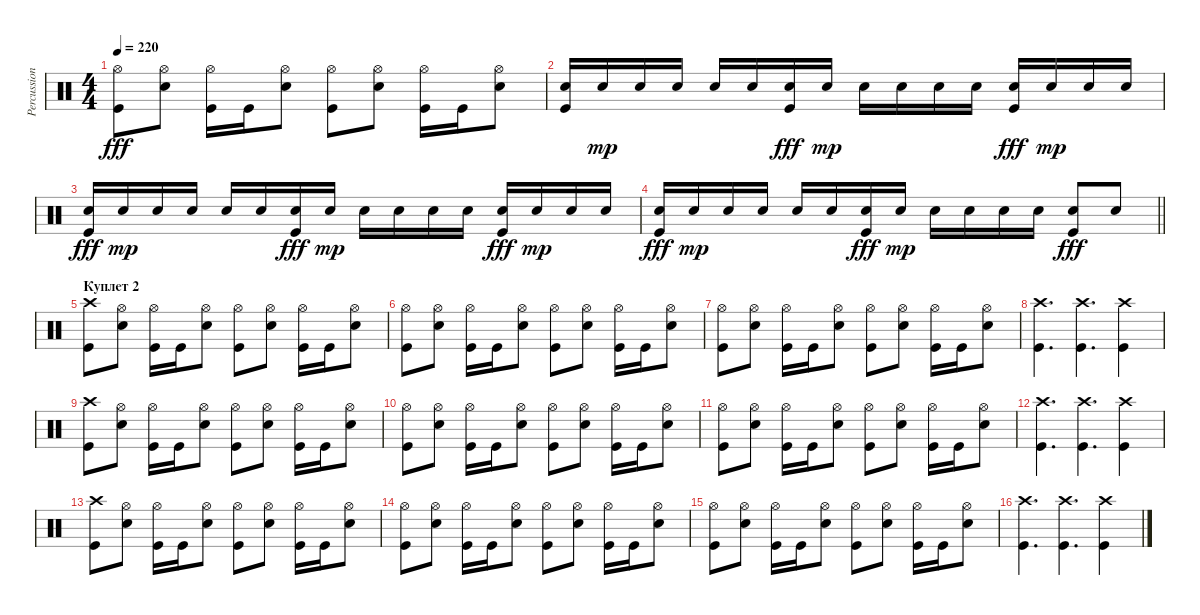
\track ("Percussion" "Percussion") {instrument percussion}
\staff {score}
\articulation defaults
\ts (4 4)
\tempo 220
\clef neutral
\ks c
("Hi-Hat (open)" "Kick (hit)").8{dy fff} ("Hi-Hat (open)" "Snare (hit) 2").8 ("Hi-Hat (open)" "Kick (hit)").16 "Kick (hit)".16 ("Hi-Hat (open)" "Snare (hit) 2").8 ("Hi-Hat (open)" "Kick (hit)").8 ("Hi-Hat (open)" "Snare (hit) 2").8 ("Hi-Hat (open)" "Kick (hit)").16 "Kick (hit)".16 ("Hi-Hat (open)" "Snare (hit) 2").8 |
("Snare (hit) 2" "Kick (hit)").16 "Snare (hit) 2".16{dy mp} "Snare (hit) 2".16 "Snare (hit) 2".16 "Snare (hit) 2".16 "Snare (hit) 2".16 ("Snare (hit) 2" "Kick (hit)").16{dy fff} "Snare (hit) 2".16{dy mp} "Snare (hit) 2".16 "Snare (hit) 2".16 "Snare (hit) 2".16 "Snare (hit) 2".16 ("Snare (hit) 2" "Kick (hit)").16{dy fff} "Snare (hit) 2".16{dy mp} "Snare (hit) 2".16 "Snare (hit) 2".16 |
("Snare (hit) 2" "Kick (hit)").16{dy fff} "Snare (hit) 2".16{dy mp} "Snare (hit) 2".16 "Snare (hit) 2".16 "Snare (hit) 2".16 "Snare (hit) 2".16 ("Snare (hit) 2" "Kick (hit)").16{dy fff} "Snare (hit) 2".16{dy mp} "Snare (hit) 2".16 "Snare (hit) 2".16 "Snare (hit) 2".16 "Snare (hit) 2".16 ("Snare (hit) 2" "Kick (hit)").16{dy fff} "Snare (hit) 2".16{dy mp} "Snare (hit) 2".16 "Snare (hit) 2".16 |
\barLineRight lightlight
("Snare (hit) 2" "Kick (hit)").16{dy fff} "Snare (hit) 2".16{dy mp} "Snare (hit) 2".16 "Snare (hit) 2".16 "Snare (hit) 2".16 "Snare (hit) 2".16 ("Snare (hit) 2" "Kick (hit)").16{dy fff} "Snare (hit) 2".16{dy mp} "Snare (hit) 2".16 "Snare (hit) 2".16 "Snare (hit) 2".16 "Snare (hit) 2".16 ("Snare (hit) 2" "Kick (hit)").8{dy fff} "Snare (hit) 2".8 |
\section ("" "Куплет 2")
("Crash high (hit)" "Kick (hit)").8 ("Hi-Hat (open)" "Snare (hit) 2").8 ("Hi-Hat (open)" "Kick (hit)").16 "Kick (hit)".16 ("Hi-Hat (open)" "Snare (hit) 2").8 ("Hi-Hat (open)" "Kick (hit)").8 ("Hi-Hat (open)" "Snare (hit) 2").8 ("Hi-Hat (open)" "Kick (hit)").16 "Kick (hit)".16 ("Hi-Hat (open)" "Snare (hit) 2").8 |
("Hi-Hat (open)" "Kick (hit)").8 ("Hi-Hat (open)" "Snare (hit) 2").8 ("Hi-Hat (open)" "Kick (hit)").16 "Kick (hit)".16 ("Hi-Hat (open)" "Snare (hit) 2").8 ("Hi-Hat (open)" "Kick (hit)").8 ("Hi-Hat (open)" "Snare (hit) 2").8 ("Hi-Hat (open)" "Kick (hit)").16 "Kick (hit)".16 ("Hi-Hat (open)" "Snare (hit) 2").8 |
("Hi-Hat (open)" "Kick (hit)").8 ("Hi-Hat (open)" "Snare (hit) 2").8 ("Hi-Hat (open)" "Kick (hit)").16 "Kick (hit)".16 ("Hi-Hat (open)" "Snare (hit) 2").8 ("Hi-Hat (open)" "Kick (hit)").8 ("Hi-Hat (open)" "Snare (hit) 2").8 ("Hi-Hat (open)" "Kick (hit)").16 "Kick (hit)".16 ("Hi-Hat (open)" "Snare (hit) 2").8 |
("Crash high (hit)" "Kick (hit)").4{d} ("Crash high (hit)" "Kick (hit)").4{d} ("Crash high (hit)" "Kick (hit)").4 |
("Crash high (hit)" "Kick (hit)").8 ("Hi-Hat (open)" "Snare (hit) 2").8 ("Hi-Hat (open)" "Kick (hit)").16 "Kick (hit)".16 ("Hi-Hat (open)" "Snare (hit) 2").8 ("Hi-Hat (open)" "Kick (hit)").8 ("Hi-Hat (open)" "Snare (hit) 2").8 ("Hi-Hat (open)" "Kick (hit)").16 "Kick (hit)".16 ("Hi-Hat (open)" "Snare (hit) 2").8 |
("Hi-Hat (open)" "Kick (hit)").8 ("Hi-Hat (open)" "Snare (hit) 2").8 ("Hi-Hat (open)" "Kick (hit)").16 "Kick (hit)".16 ("Hi-Hat (open)" "Snare (hit) 2").8 ("Hi-Hat (open)" "Kick (hit)").8 ("Hi-Hat (open)" "Snare (hit) 2").8 ("Hi-Hat (open)" "Kick (hit)").16 "Kick (hit)".16 ("Hi-Hat (open)" "Snare (hit) 2").8 |
("Hi-Hat (open)" "Kick (hit)").8 ("Hi-Hat (open)" "Snare (hit) 2").8 ("Hi-Hat (open)" "Kick (hit)").16 "Kick (hit)".16 ("Hi-Hat (open)" "Snare (hit) 2").8 ("Hi-Hat (open)" "Kick (hit)").8 ("Hi-Hat (open)" "Snare (hit) 2").8 ("Hi-Hat (open)" "Kick (hit)").16 "Kick (hit)".16 ("Hi-Hat (open)" "Snare (hit) 2").8 |
("Crash high (hit)" "Kick (hit)").4{d} ("Crash high (hit)" "Kick (hit)").4{d} ("Crash high (hit)" "Kick (hit)").4 |
("Crash high (hit)" "Kick (hit)").8 ("Hi-Hat (open)" "Snare (hit) 2").8 ("Hi-Hat (open)" "Kick (hit)").16 "Kick (hit)".16 ("Hi-Hat (open)" "Snare (hit) 2").8 ("Hi-Hat (open)" "Kick (hit)").8 ("Hi-Hat (open)" "Snare (hit) 2").8 ("Hi-Hat (open)" "Kick (hit)").16 "Kick (hit)".16 ("Hi-Hat (open)" "Snare (hit) 2").8 |
("Hi-Hat (open)" "Kick (hit)").8 ("Hi-Hat (open)" "Snare (hit) 2").8 ("Hi-Hat (open)" "Kick (hit)").16 "Kick (hit)".16 ("Hi-Hat (open)" "Snare (hit) 2").8 ("Hi-Hat (open)" "Kick (hit)").8 ("Hi-Hat (open)" "Snare (hit) 2").8 ("Hi-Hat (open)" "Kick (hit)").16 "Kick (hit)".16 ("Hi-Hat (open)" "Snare (hit) 2").8 |
("Hi-Hat (open)" "Kick (hit)").8 ("Hi-Hat (open)" "Snare (hit) 2").8 ("Hi-Hat (open)" "Kick (hit)").16 "Kick (hit)".16 ("Hi-Hat (open)" "Snare (hit) 2").8 ("Hi-Hat (open)" "Kick (hit)").8 ("Hi-Hat (open)" "Snare (hit) 2").8 ("Hi-Hat (open)" "Kick (hit)").16 "Kick (hit)".16 ("Hi-Hat (open)" "Snare (hit) 2").8 |
("Crash high (hit)" "Kick (hit)").4{d} ("Crash high (hit)" "Kick (hit)").4{d} ("Crash high (hit)" "Kick (hit)").4
